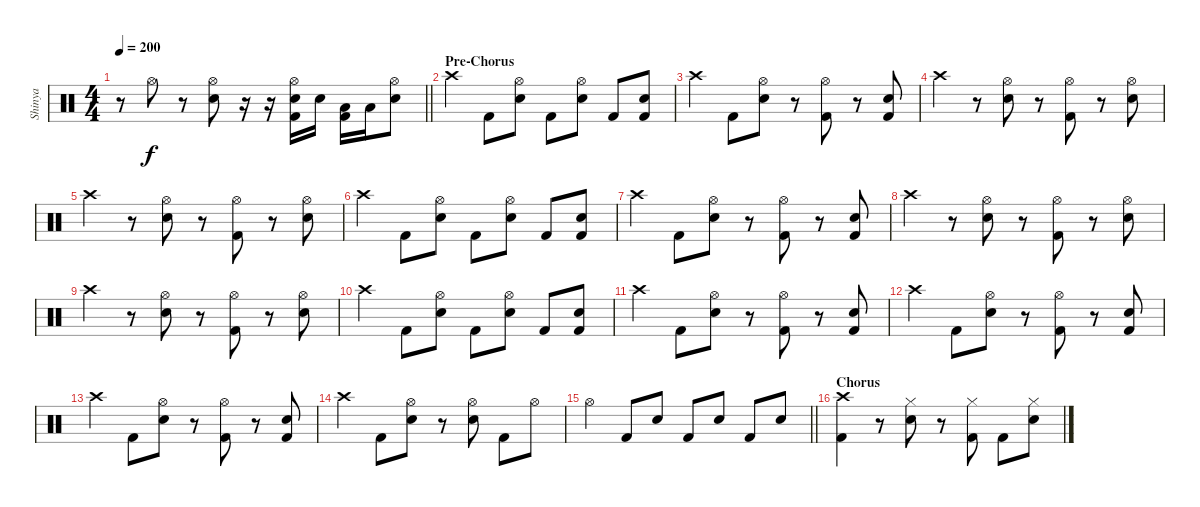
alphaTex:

\track ("Shinya" "Shinya") {instrument percussion}
\staff {score}
\articulation defaults
\ts (4 4)
\tempo 200
\clef neutral
\barLineRight lightlight
\ks c
r.8{dy f} "Hi-Hat (open)".8 r.8 ("Hi-Hat (open)" "Electric Snare (hit)").8 r.16 r.16 ("Hi-Hat (open)" "Kick (hit) 2" "Electric Snare (hit)").16 "Electric Snare (hit)".16 ("Kick (hit) 2" "Low Tom (hit)").16 "Low Tom (hit)".16 ("Hi-Hat (open)" "Electric Snare (hit)").8 |
\section ("" "Pre-Chorus")
"Crash high (hit)".4 "Kick (hit) 2".8 ("Electric Snare (hit)" "Hi-Hat (open)").8 "Kick (hit) 2".8 ("Electric Snare (hit)" "Hi-Hat (open)").8 "Kick (hit) 2".8 ("Electric Snare (hit)" "Kick (hit) 2").8 |
"Crash high (hit)".4 "Kick (hit) 2".8 ("Electric Snare (hit)" "Hi-Hat (open)").8 r.8 ("Kick (hit) 2" "Hi-Hat (open)").8 r.8 ("Electric Snare (hit)" "Kick (hit) 2").8 |
"Crash high (hit)".4 r.8 ("Hi-Hat (open)" "Electric Snare (hit)").8 r.8 ("Hi-Hat (open)" "Kick (hit) 2").8 r.8 ("Hi-Hat (open)" "Electric Snare (hit)").8 |
"Crash high (hit)".4 r.8 ("Hi-Hat (open)" "Electric Snare (hit)").8 r.8 ("Hi-Hat (open)" "Kick (hit) 2").8 r.8 ("Hi-Hat (open)" "Electric Snare (hit)").8 |
"Crash high (hit)".4 "Kick (hit) 2".8 ("Electric Snare (hit)" "Hi-Hat (open)").8 "Kick (hit) 2".8 ("Electric Snare (hit)" "Hi-Hat (open)").8 "Kick (hit) 2".8 ("Electric Snare (hit)" "Kick (hit) 2").8 |
"Crash high (hit)".4 "Kick (hit) 2".8 ("Electric Snare (hit)" "Hi-Hat (open)").8 r.8 ("Kick (hit) 2" "Hi-Hat (open)").8 r.8 ("Electric Snare (hit)" "Kick (hit) 2").8 |
"Crash high (hit)".4 r.8 ("Hi-Hat (open)" "Electric Snare (hit)").8 r.8 ("Hi-Hat (open)" "Kick (hit) 2").8 r.8 ("Hi-Hat (open)" "Electric Snare (hit)").8 |
"Crash high (hit)".4 r.8 ("Hi-Hat (open)" "Electric Snare (hit)").8 r.8 ("Hi-Hat (open)" "Kick (hit) 2").8 r.8 ("Hi-Hat (open)" "Electric Snare (hit)").8 |
"Crash high (hit)".4 "Kick (hit) 2".8 ("Electric Snare (hit)" "Hi-Hat (open)").8 "Kick (hit) 2".8 ("Electric Snare (hit)" "Hi-Hat (open)").8 "Kick (hit) 2".8 ("Electric Snare (hit)" "Kick (hit) 2").8 |
"Crash high (hit)".4 "Kick (hit) 2".8 ("Electric Snare (hit)" "Hi-Hat (open)").8 r.8 ("Kick (hit) 2" "Hi-Hat (open)").8 r.8 ("Electric Snare (hit)" "Kick (hit) 2").8 |
"Crash high (hit)".4 "Kick (hit) 2".8 ("Electric Snare (hit)" "Hi-Hat (open)").8 r.8 ("Kick (hit) 2" "Hi-Hat (open)").8 r.8 ("Electric Snare (hit)" "Kick (hit) 2").8 |
"Crash high (hit)".4 "Kick (hit) 2".8 ("Electric Snare (hit)" "Hi-Hat (open)").8 r.8 ("Kick (hit) 2" "Hi-Hat (open)").8 r.8 ("Electric Snare (hit)" "Kick (hit) 2").8 |
"Crash high (hit)".4 "Kick (hit) 2".8 ("Electric Snare (hit)" "Hi-Hat (open)").8 r.8 ("Electric Snare (hit)" "Hi-Hat (open)").8 "Kick (hit) 2".8 "Hi-Hat (open)".8 |
\barLineRight lightlight "Hi-Hat (open)".4 "Kick (hit) 2".8 "Electric Snare (hit)".8 "Kick (hit) 2".8 "Electric Snare (hit)".8 "Kick (hit) 2".8 "Electric Snare (hit)".8
|
\section ("" "Chorus")
("Kick (hit) 2" "Crash high (hit)").4 r.8 ("Electric Snare (hit)" "Hi-Hat (closed)").8 r.8 ("Kick (hit) 2" "Hi-Hat (closed)").8 "Kick (hit) 2".8 ("Electric Snare (hit)" "Hi-Hat (closed)").8
